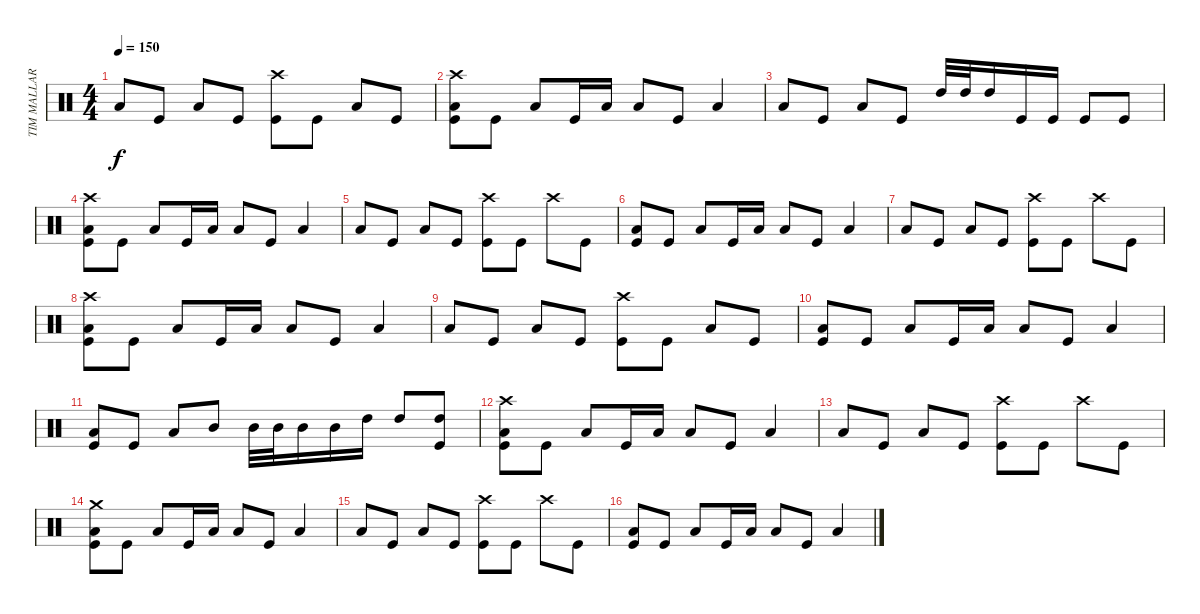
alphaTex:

\track ("TIM MALLARE - drums" "TIM MALLAR") {instrument percussion}
\staff {score}
\articulation defaults
\ts (4 4)
\tempo 150
\clef neutral
\ks c "Low Tom (hit)".8{dy f} "Kick (hit)".8 "Low Tom (hit)".8 "Kick (hit)".8
("Crash high (hit)" "Kick (hit)").8 "Kick (hit)".8 "Low Tom (hit)".8 "Kick (hit)".8 |
("Crash high (hit)" "Low Tom (hit)" "Kick (hit)").8 "Kick (hit)".8 "Low Tom (hit)".8 "Kick (hit)".16 "Low Tom (hit)".16 "Low Tom (hit)".8 "Kick (hit)".8 "Low Tom (hit)".4 |
"Low Tom (hit)".8 "Kick (hit)".8 "Low Tom (hit)".8 "Kick (hit)".8 "High Tom (hit)".32 "High Tom (hit)".32 "High Tom (hit)".16 "Kick (hit)".16 "Kick (hit)".16 "Kick (hit)".8 "Kick (hit)".8 |
("Crash high (hit)" "Low Tom (hit)" "Kick (hit)").8 "Kick (hit)".8 "Low Tom (hit)".8 "Kick (hit)".16 "Low Tom (hit)".16 "Low Tom (hit)".8 "Kick (hit)".8 "Low Tom (hit)".4 |
"Low Tom (hit)".8 "Kick (hit)".8 "Low Tom (hit)".8 "Kick (hit)".8 ("Crash high (hit)" "Kick (hit)").8 "Kick (hit)".8 "Crash high (hit)".8 "Kick (hit)".8 |
("Low Tom (hit)" "Kick (hit)").8 "Kick (hit)".8 "Low Tom (hit)".8 "Kick (hit)".16 "Low Tom (hit)".16 "Low Tom (hit)".8 "Kick (hit)".8 "Low Tom (hit)".4 |
"Low Tom (hit)".8 "Kick (hit)".8 "Low Tom (hit)".8 "Kick (hit)".8 ("Crash high (hit)" "Kick (hit)").8 "Kick (hit)".8 "Crash high (hit)".8 "Kick (hit)".8 |
("Crash high (hit)" "Low Tom (hit)" "Kick (hit)").8 "Kick (hit)".8 "Low Tom (hit)".8 "Kick (hit)".16 "Low Tom (hit)".16 "Low Tom (hit)".8 "Kick (hit)".8 "Low Tom (hit)".4 |
"Low Tom (hit)".8 "Kick (hit)".8 "Low Tom (hit)".8 "Kick (hit)".8 ("Crash high (hit)" "Kick (hit)").8 "Kick (hit)".8 "Low Tom (hit)".8 "Kick (hit)".8 |
("Low Tom (hit)" "Kick (hit)").8 "Kick (hit)".8 "Low Tom (hit)".8 "Kick (hit)".16 "Low Tom (hit)".16 "Low Tom (hit)".8 "Kick (hit)".8 "Low Tom (hit)".4 |
("Low Tom (hit)" "Kick (hit)").8 "Kick (hit)".8 "Low Tom (hit)".8 "Mid Tom (hit)".8 "Mid Tom (hit)".32 "Mid Tom (hit)".32 "Mid Tom (hit)".16 "Mid Tom (hit)".16 "High Tom (hit)".16 "High Tom (hit)".8 ("High Tom (hit)" "Kick (hit)").8 |
("Crash high (hit)" "Low Tom (hit)" "Kick (hit)").8 "Kick (hit)".8 "Low Tom (hit)".8 "Kick (hit)".16 "Low Tom (hit)".16 "Low Tom (hit)".8 "Kick (hit)".8 "Low Tom (hit)".4 |
"Low Tom (hit)".8 "Kick (hit)".8 "Low Tom (hit)".8 "Kick (hit)".8 ("Crash high (hit)" "Kick (hit)").8 "Kick (hit)".8 "Crash high (hit)".8 "Kick (hit)".8 |
("Crash medium (hit)" "Low Tom (hit)" "Kick (hit)").8 "Kick (hit)".8 "Low Tom (hit)".8 "Kick (hit)".16 "Low Tom (hit)".16 "Low Tom (hit)".8 "Kick (hit)".8 "Low Tom (hit)".4 |
"Low Tom (hit)".8 "Kick (hit)".8 "Low Tom (hit)".8 "Kick (hit)".8 ("Crash high (hit)" "Kick (hit)").8 "Kick (hit)".8 "Crash high (hit)".8 "Kick (hit)".8 |
("Low Tom (hit)" "Kick (hit)").8 "Kick (hit)".8 "Low Tom (hit)".8 "Kick (hit)".16 "Low Tom (hit)".16 "Low Tom (hit)".8 "Kick (hit)".8 "Low Tom (hit)".4
